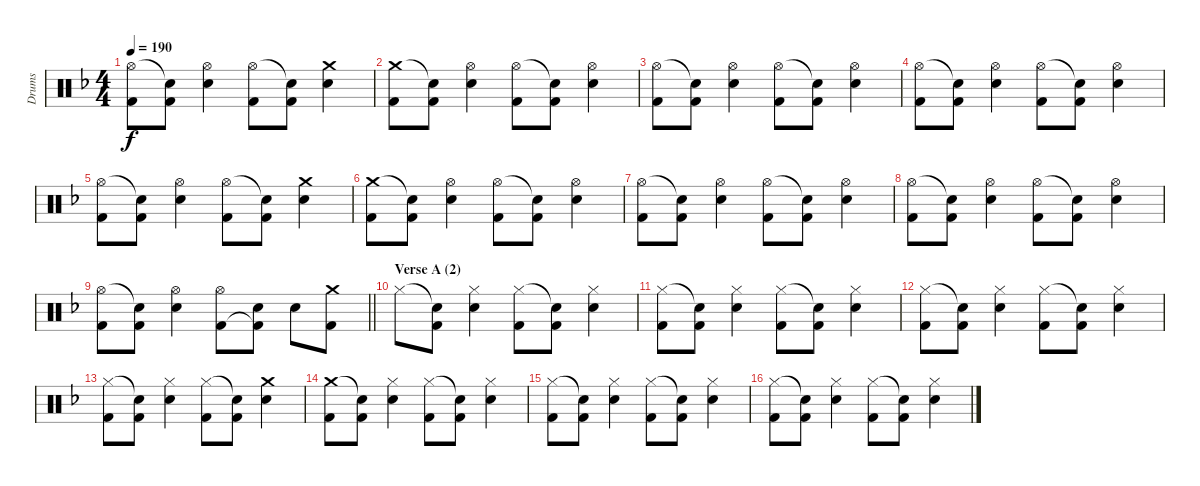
\track ("Drums" "Drums") {instrument percussion}
\staff {score}
\articulation defaults
\ts (4 4)
\tempo 190
\clef neutral
\ks dminor
("Hi-Hat (open)" "Kick (hit) 2").8{dy f} ("Snare (hit)"{t} "Kick (hit) 2").8 ("Hi-Hat (open)" "Electric Snare (hit)").4 ("Hi-Hat (open)" "Kick (hit) 2").8 ("Snare (hit)"{t} "Kick (hit) 2").8 ("Crash medium (hit)" "Electric Snare (hit)").4 |
("Crash medium (hit)" "Kick (hit) 2").8 ("Snare (hit)"{t} "Kick (hit) 2").8 ("Hi-Hat (open)" "Electric Snare (hit)").4 ("Hi-Hat (open)" "Kick (hit) 2").8 ("Snare (hit)"{t} "Kick (hit) 2").8 ("Hi-Hat (open)" "Electric Snare (hit)").4 |
("Hi-Hat (open)" "Kick (hit) 2").8 ("Snare (hit)"{t} "Kick (hit) 2").8 ("Hi-Hat (open)" "Electric Snare (hit)").4 ("Hi-Hat (open)" "Kick (hit) 2").8 ("Snare (hit)"{t} "Kick (hit) 2").8 ("Hi-Hat (open)" "Electric Snare (hit)").4 |
("Hi-Hat (open)" "Kick (hit) 2").8 ("Snare (hit)"{t} "Kick (hit) 2").8 ("Hi-Hat (open)" "Electric Snare (hit)").4 ("Hi-Hat (open)" "Kick (hit) 2").8 ("Snare (hit)"{t} "Kick (hit) 2").8 ("Hi-Hat (open)" "Electric Snare (hit)").4 |
("Hi-Hat (open)" "Kick (hit) 2").8 ("Snare (hit)"{t} "Kick (hit) 2").8 ("Hi-Hat (open)" "Electric Snare (hit)").4 ("Hi-Hat (open)" "Kick (hit) 2").8 ("Snare (hit)"{t} "Kick (hit) 2").8 ("Crash medium (hit)" "Electric Snare (hit)").4 |
("Crash medium (hit)" "Kick (hit) 2").8 ("Snare (hit)"{t} "Kick (hit) 2").8 ("Hi-Hat (open)" "Electric Snare (hit)").4 ("Hi-Hat (open)" "Kick (hit) 2").8 ("Snare (hit)"{t} "Kick (hit) 2").8 ("Hi-Hat (open)" "Electric Snare (hit)").4 |
("Hi-Hat (open)" "Kick (hit) 2").8 ("Snare (hit)"{t} "Kick (hit) 2").8 ("Hi-Hat (open)" "Electric Snare (hit)").4 ("Hi-Hat (open)" "Kick (hit) 2").8 ("Snare (hit)"{t} "Kick (hit) 2").8 ("Hi-Hat (open)" "Electric Snare (hit)").4 |
("Hi-Hat (open)" "Kick (hit) 2").8 ("Snare (hit)"{t} "Kick (hit) 2").8 ("Hi-Hat (open)" "Electric Snare (hit)").4 ("Hi-Hat (open)" "Kick (hit) 2").8 ("Snare (hit)"{t} "Kick (hit) 2").8 ("Hi-Hat (open)" "Electric Snare (hit)").4 |
\barLineRight lightlight
("Hi-Hat (open)" "Kick (hit) 2").8 ("Snare (hit)"{t} "Kick (hit) 2").8 ("Hi-Hat (open)" "Electric Snare (hit)").4 ("Hi-Hat (open)" "Kick (hit) 2").8 ("Electric Snare (hit)" "Kick (hit) 2"{t}).8 "Electric Snare (hit)".8 ("Crash medium (hit)" "Kick (hit) 2").8 |
\section ("" "Verse A (2)")
"Hi-Hat (closed)".8 ("Snare (hit)"{t} "Kick (hit) 2").8 ("Hi-Hat (closed)" "Electric Snare (hit)").4 ("Hi-Hat (closed)" "Kick (hit) 2").8 ("Snare (hit)"{t} "Kick (hit) 2").8 ("Hi-Hat (closed)" "Electric Snare (hit)").4 |
("Hi-Hat (closed)" "Kick (hit) 2").8 ("Snare (hit)"{t} "Kick (hit) 2").8 ("Hi-Hat (closed)" "Electric Snare (hit)").4 ("Hi-Hat (closed)" "Kick (hit) 2").8 ("Snare (hit)"{t} "Kick (hit) 2").8 ("Hi-Hat (closed)" "Electric Snare (hit)").4 |
("Hi-Hat (closed)" "Kick (hit) 2").8 ("Snare (hit)"{t} "Kick (hit) 2").8 ("Hi-Hat (closed)" "Electric Snare (hit)").4 ("Hi-Hat (closed)" "Kick (hit) 2").8 ("Snare (hit)"{t} "Kick (hit) 2").8 ("Hi-Hat (closed)" "Electric Snare (hit)").4 |
("Hi-Hat (closed)" "Kick (hit) 2").8 ("Snare (hit)"{t} "Kick (hit) 2").8 ("Hi-Hat (closed)" "Electric Snare (hit)").4 ("Hi-Hat (closed)" "Kick (hit) 2").8 ("Snare (hit)"{t} "Kick (hit) 2").8 ("Crash medium (hit)" "Electric Snare (hit)").4 |
("Crash medium (hit)" "Kick (hit) 2").8 ("Snare (hit)"{t} "Kick (hit) 2").8 ("Hi-Hat (closed)" "Electric Snare (hit)").4 ("Hi-Hat (closed)" "Kick (hit) 2").8 ("Snare (hit)"{t} "Kick (hit) 2").8 ("Hi-Hat (closed)" "Electric Snare (hit)").4 |
("Hi-Hat (closed)" "Kick (hit) 2").8 ("Snare (hit)"{t} "Kick (hit) 2").8 ("Hi-Hat (closed)" "Electric Snare (hit)").4 ("Hi-Hat (closed)" "Kick (hit) 2").8 ("Snare (hit)"{t} "Kick (hit) 2").8 ("Hi-Hat (closed)" "Electric Snare (hit)").4 |
("Hi-Hat (closed)" "Kick (hit) 2").8 ("Snare (hit)"{t} "Kick (hit) 2").8 ("Hi-Hat (closed)" "Electric Snare (hit)").4 ("Hi-Hat (closed)" "Kick (hit) 2").8 ("Snare (hit)"{t} "Kick (hit) 2").8 ("Hi-Hat (closed)" "Electric Snare (hit)").4
